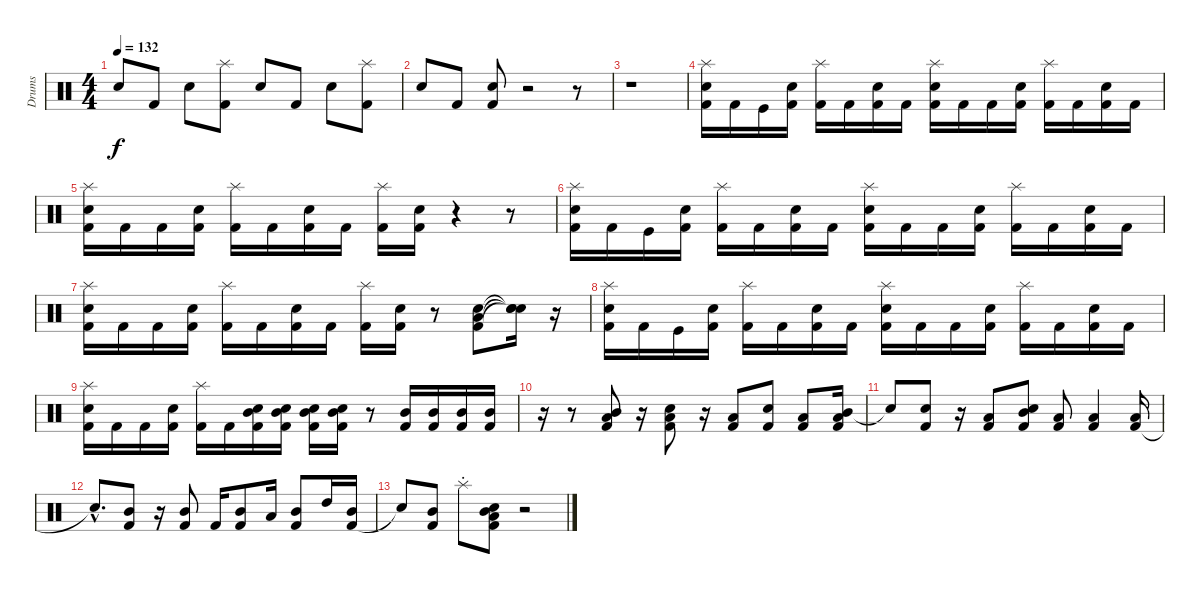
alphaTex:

\track ("Drums" "Drums") {instrument percussion}
\staff {score}
\articulation defaults
\ts (4 4)
\tempo 132
\clef neutral
\ks c "Electric Snare (hit)".8{dy f} "Kick (hit) 2".8 "Electric Snare (hit)".8
("Kick (hit) 2" "Splash (hit)").8 "Electric Snare (hit)".8 "Kick (hit) 2".8 "Electric Snare (hit)".8 ("Kick (hit) 2" "Splash (hit)").8 |
"Electric Snare (hit)".8 "Kick (hit) 2".8 ("Electric Snare (hit)" "Kick (hit) 2").8 r.2 r.8 |
r.1 |
("Kick (hit) 2" "Splash (hit)" "Electric Snare (hit)").16 "Kick (hit) 2".16 "Kick (hit)".16 ("Kick (hit) 2" "Electric Snare (hit)").16 ("Kick (hit) 2" "Splash (hit)").16 "Kick (hit) 2".16 ("Kick (hit) 2" "Electric Snare (hit)").16 "Kick (hit) 2".16 ("Kick (hit) 2" "Splash (hit)" "Electric Snare (hit)").16 "Kick (hit) 2".16 "Kick (hit) 2".16 ("Kick (hit) 2" "Electric Snare (hit)").16 ("Kick (hit) 2" "Splash (hit)").16 "Kick (hit) 2".16 ("Kick (hit) 2" "Electric Snare (hit)").16 "Kick (hit) 2".16 |
("Kick (hit) 2" "Splash (hit)" "Electric Snare (hit)").16 "Kick (hit) 2".16 "Kick (hit) 2".16 ("Kick (hit) 2" "Electric Snare (hit)").16 ("Kick (hit) 2" "Splash (hit)").16 "Kick (hit) 2".16 ("Kick (hit) 2" "Electric Snare (hit)").16 "Kick (hit) 2".16 ("Kick (hit) 2" "Splash (hit)").16 ("Kick (hit) 2" "Electric Snare (hit)").16 r.4 r.8 |
("Kick (hit) 2" "Splash (hit)" "Electric Snare (hit)").16 "Kick (hit) 2".16 "Kick (hit)".16 ("Kick (hit) 2" "Electric Snare (hit)").16 ("Kick (hit) 2" "Splash (hit)").16 "Kick (hit) 2".16 ("Kick (hit) 2" "Electric Snare (hit)").16 "Kick (hit) 2".16 ("Kick (hit) 2" "Splash (hit)" "Electric Snare (hit)").16 "Kick (hit) 2".16 "Kick (hit) 2".16 ("Kick (hit) 2" "Electric Snare (hit)").16 ("Kick (hit) 2" "Splash (hit)").16 "Kick (hit) 2".16 ("Kick (hit) 2" "Electric Snare (hit)").16 "Kick (hit) 2".16 |
("Kick (hit) 2" "Splash (hit)" "Electric Snare (hit)").16 "Kick (hit) 2".16 "Kick (hit) 2".16 ("Kick (hit) 2" "Electric Snare (hit)").16 ("Kick (hit) 2" "Splash (hit)").16 "Kick (hit) 2".16 ("Kick (hit) 2" "Electric Snare (hit)").16 "Kick (hit) 2".16 ("Kick (hit) 2" "Splash (hit)").16 ("Kick (hit) 2" "Electric Snare (hit)").16 r.8 ("Kick (hit) 2" "Electric Snare (hit)" "Low Tom (hit)").8 ("Snare (hit)"{t} "Snare (hit)"{t} "Snare (hit)"{t}).16 r.16 |
("Kick (hit) 2" "Splash (hit)" "Electric Snare (hit)").16 "Kick (hit) 2".16 "Kick (hit)".16 ("Kick (hit) 2" "Electric Snare (hit)").16 ("Kick (hit) 2" "Splash (hit)").16 "Kick (hit) 2".16 ("Kick (hit) 2" "Electric Snare (hit)").16 "Kick (hit) 2".16 ("Kick (hit) 2" "Splash (hit)" "Electric Snare (hit)").16 "Kick (hit) 2".16 "Kick (hit) 2".16 ("Kick (hit) 2" "Electric Snare (hit)").16 ("Kick (hit) 2" "Splash (hit)").16 "Kick (hit) 2".16 ("Kick (hit) 2" "Electric Snare (hit)").16 "Kick (hit) 2".16 |
("Kick (hit) 2" "Splash (hit)" "Electric Snare (hit)").16 "Kick (hit) 2".16 "Kick (hit) 2".16 ("Kick (hit) 2" "Electric Snare (hit)").16 ("Kick (hit) 2" "Splash (hit)").16 "Kick (hit) 2".16 ("Kick (hit) 2" "Mid Tom (hit)" "Electric Snare (hit)").16 ("Kick (hit) 2" "Mid Tom (hit)" "Electric Snare (hit)").16 ("Kick (hit) 2" "Mid Tom (hit)" "Electric Snare (hit)").16 ("Kick (hit) 2" "Mid Tom (hit)" "Electric Snare (hit)").16 r.8 ("Mid Tom (hit)" "Kick (hit) 2").16 ("Mid Tom (hit)" "Kick (hit) 2").16 ("Mid Tom (hit)" "Kick (hit) 2").16 ("Mid Tom (hit)" "Kick (hit) 2").16 |
r.16 r.8 ("Mid Tom (hit)" "Low Tom (hit)" "Kick (hit) 2").8 r.16 ("Low Tom (hit)" "Electric Snare (hit)" "Kick (hit) 2").8 r.16 ("Low Tom (hit)" "Kick (hit) 2").8 ("Electric Snare (hit)" "Kick (hit) 2").8 ("Low Tom (hit)" "Kick (hit) 2").8 ("Mid Tom (hit)" "Low Tom (hit)" "Kick (hit) 2").16 |
"Snare (hit)"{t}.8 ("Kick (hit) 2" "Electric Snare (hit)").8 r.16 ("Low Tom (hit)" "Kick (hit) 2").8 ("Mid Tom (hit)" "Electric Snare (hit)" "Kick (hit) 2").8 ("Low Tom (hit)" "Kick (hit) 2").8 ("Kick (hit) 2" "Low Tom (hit)").4 ("Kick (hit) 2" "Low Tom (hit)").16 |
"Snare (hit)"{hac t}.8{d} ("Kick (hit) 2" "Mid Tom (hit)").8 r.16 ("Kick (hit) 2" "Mid Tom (hit)").8 "Kick (hit) 2".16 ("Kick (hit) 2" "Mid Tom (hit)").8 "Low Tom (hit)".16 ("Kick (hit) 2" "Mid Tom (hit)").8 "High Tom (hit)".16 ("Kick (hit) 2" "Mid Tom (hit)").16 |
"Snare (hit)"{t}.8 ("Kick (hit) 2" "Mid Tom (hit)").8 "Splash (hit)"{st}.8 ("Mid Tom (hit)" "Low Tom (hit)" "Kick (hit) 2" "Electric Snare (hit)").8 r.2
